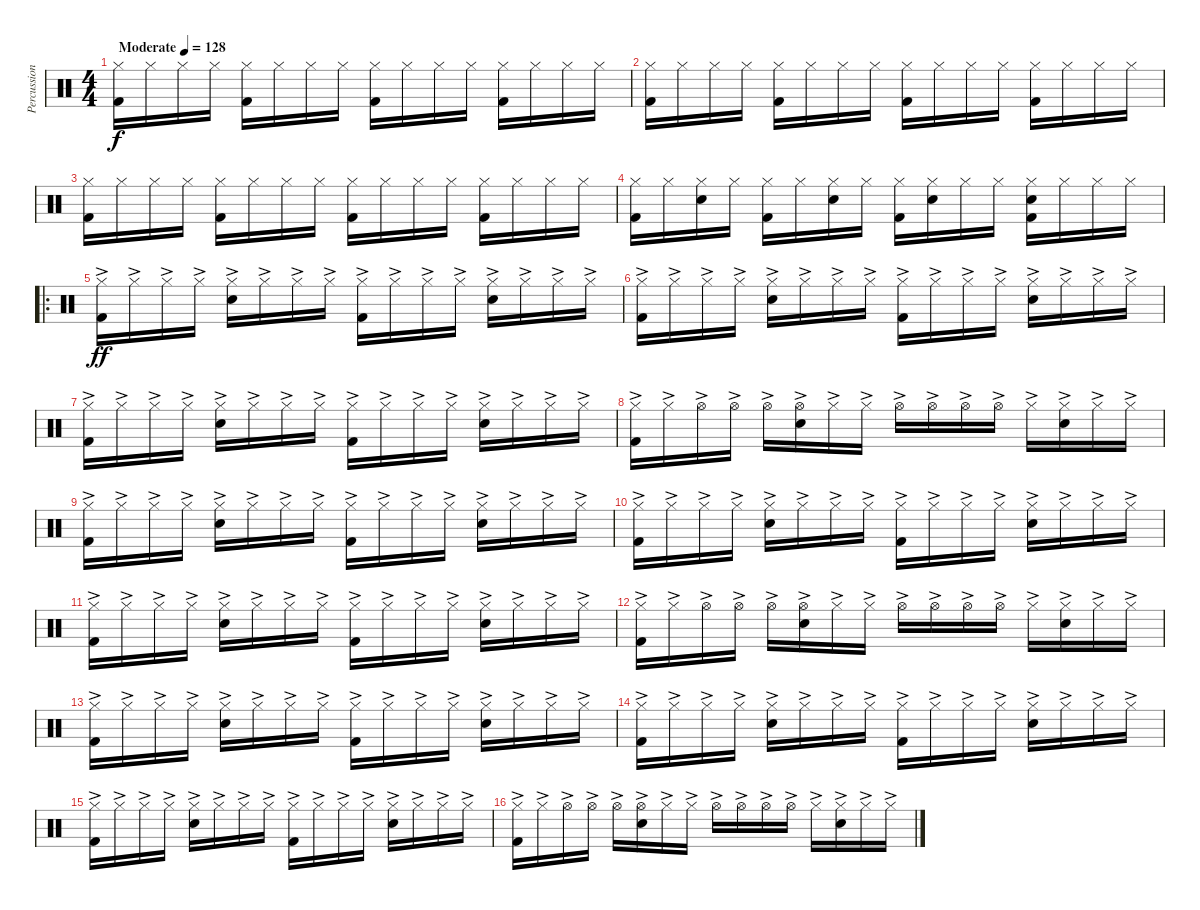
\track ("Percussion" "Percussion") {instrument percussion}
\staff {score}
\articulation defaults
\ts (4 4)
\tempo (128 "Moderate")
\clef neutral
\ks c
("Hi-Hat (closed)" "Kick (hit) 2").16{dy f} "Hi-Hat (closed)".16 "Hi-Hat (closed)".16 "Hi-Hat (closed)".16 ("Hi-Hat (closed)" "Kick (hit) 2").16 "Hi-Hat (closed)".16 "Hi-Hat (closed)".16 "Hi-Hat (closed)".16 ("Hi-Hat (closed)" "Kick (hit) 2").16 "Hi-Hat (closed)".16 "Hi-Hat (closed)".16 "Hi-Hat (closed)".16 ("Hi-Hat (closed)" "Kick (hit) 2").16 "Hi-Hat (closed)".16 "Hi-Hat (closed)".16 "Hi-Hat (closed)".16 |
("Hi-Hat (closed)" "Kick (hit) 2").16 "Hi-Hat (closed)".16 "Hi-Hat (closed)".16 "Hi-Hat (closed)".16 ("Hi-Hat (closed)" "Kick (hit) 2").16 "Hi-Hat (closed)".16 "Hi-Hat (closed)".16 "Hi-Hat (closed)".16 ("Hi-Hat (closed)" "Kick (hit) 2").16 "Hi-Hat (closed)".16 "Hi-Hat (closed)".16 "Hi-Hat (closed)".16 ("Hi-Hat (closed)" "Kick (hit) 2").16 "Hi-Hat (closed)".16 "Hi-Hat (closed)".16 "Hi-Hat (closed)".16 |
("Hi-Hat (closed)" "Kick (hit) 2").16 "Hi-Hat (closed)".16 "Hi-Hat (closed)".16 "Hi-Hat (closed)".16 ("Hi-Hat (closed)" "Kick (hit) 2").16 "Hi-Hat (closed)".16 "Hi-Hat (closed)".16 "Hi-Hat (closed)".16 ("Hi-Hat (closed)" "Kick (hit) 2").16 "Hi-Hat (closed)".16 "Hi-Hat (closed)".16 "Hi-Hat (closed)".16 ("Hi-Hat (closed)" "Kick (hit) 2").16 "Hi-Hat (closed)".16 "Hi-Hat (closed)".16 "Hi-Hat (closed)".16 |
("Hi-Hat (closed)" "Kick (hit) 2").16 "Hi-Hat (closed)".16 ("Hi-Hat (closed)" "Snare (hit) 2").16 "Hi-Hat (closed)".16 ("Hi-Hat (closed)" "Kick (hit) 2").16 "Hi-Hat (closed)".16 ("Hi-Hat (closed)" "Snare (hit) 2").16 "Hi-Hat (closed)".16 ("Hi-Hat (closed)" "Kick (hit) 2").16 ("Hi-Hat (closed)" "Snare (hit) 2").16 "Hi-Hat (closed)".16 "Hi-Hat (closed)".16 ("Hi-Hat (closed)" "Snare (hit) 2" "Kick (hit) 2").16 "Hi-Hat (closed)".16 "Hi-Hat (closed)".16 "Hi-Hat (closed)".16 |
\ro
("Hi-Hat (closed)"{ac} "Kick (hit) 2"{ac}).16{dy ff} "Hi-Hat (closed)"{ac}.16 "Hi-Hat (closed)"{ac}.16 "Hi-Hat (closed)"{ac}.16 ("Hi-Hat (closed)"{ac} "Snare (hit) 2"{ac}).16 "Hi-Hat (closed)"{ac}.16 "Hi-Hat (closed)"{ac}.16 "Hi-Hat (closed)"{ac}.16 ("Hi-Hat (closed)"{ac} "Kick (hit) 2"{ac}).16 "Hi-Hat (closed)"{ac}.16 "Hi-Hat (closed)"{ac}.16 "Hi-Hat (closed)"{ac}.16 ("Hi-Hat (closed)"{ac} "Snare (hit) 2"{ac}).16 "Hi-Hat (closed)"{ac}.16 "Hi-Hat (closed)"{ac}.16 "Hi-Hat (closed)"{ac}.16 |
("Hi-Hat (closed)"{ac} "Kick (hit) 2"{ac}).16 "Hi-Hat (closed)"{ac}.16 "Hi-Hat (closed)"{ac}.16 "Hi-Hat (closed)"{ac}.16 ("Hi-Hat (closed)"{ac} "Snare (hit) 2"{ac}).16 "Hi-Hat (closed)"{ac}.16 "Hi-Hat (closed)"{ac}.16 "Hi-Hat (closed)"{ac}.16 ("Hi-Hat (closed)"{ac} "Kick (hit) 2"{ac}).16 "Hi-Hat (closed)"{ac}.16 "Hi-Hat (closed)"{ac}.16 "Hi-Hat (closed)"{ac}.16 ("Hi-Hat (closed)"{ac} "Snare (hit) 2"{ac}).16 "Hi-Hat (closed)"{ac}.16 "Hi-Hat (closed)"{ac}.16 "Hi-Hat (closed)"{ac}.16 |
("Hi-Hat (closed)"{ac} "Kick (hit) 2"{ac}).16 "Hi-Hat (closed)"{ac}.16 "Hi-Hat (closed)"{ac}.16 "Hi-Hat (closed)"{ac}.16 ("Hi-Hat (closed)"{ac} "Snare (hit) 2"{ac}).16 "Hi-Hat (closed)"{ac}.16 "Hi-Hat (closed)"{ac}.16 "Hi-Hat (closed)"{ac}.16 ("Hi-Hat (closed)"{ac} "Kick (hit) 2"{ac}).16 "Hi-Hat (closed)"{ac}.16 "Hi-Hat (closed)"{ac}.16 "Hi-Hat (closed)"{ac}.16 ("Hi-Hat (closed)"{ac} "Snare (hit) 2"{ac}).16 "Hi-Hat (closed)"{ac}.16 "Hi-Hat (closed)"{ac}.16 "Hi-Hat (closed)"{ac}.16 |
("Hi-Hat (closed)"{ac} "Kick (hit) 2"{ac}).16 "Hi-Hat (closed)"{ac}.16 "Hi-Hat (open)"{ac}.16 "Hi-Hat (open)"{ac}.16 "Hi-Hat (open)"{ac}.16 ("Hi-Hat (open)"{ac} "Snare (hit) 2"{ac}).16 "Hi-Hat (closed)"{ac}.16 "Hi-Hat (closed)"{ac}.16 "Hi-Hat (open)"{ac}.16 "Hi-Hat (open)"{ac}.16 "Hi-Hat (open)"{ac}.16 "Hi-Hat (open)"{ac}.16 "Hi-Hat (closed)"{ac}.16 ("Hi-Hat (closed)"{ac} "Snare (hit) 2"{ac}).16 "Hi-Hat (closed)"{ac}.16 "Hi-Hat (closed)"{ac}.16 |
("Hi-Hat (closed)"{ac} "Kick (hit) 2"{ac}).16 "Hi-Hat (closed)"{ac}.16 "Hi-Hat (closed)"{ac}.16 "Hi-Hat (closed)"{ac}.16 ("Hi-Hat (closed)"{ac} "Snare (hit) 2"{ac}).16 "Hi-Hat (closed)"{ac}.16 "Hi-Hat (closed)"{ac}.16 "Hi-Hat (closed)"{ac}.16 ("Hi-Hat (closed)"{ac} "Kick (hit) 2"{ac}).16 "Hi-Hat (closed)"{ac}.16 "Hi-Hat (closed)"{ac}.16 "Hi-Hat (closed)"{ac}.16 ("Hi-Hat (closed)"{ac} "Snare (hit) 2"{ac}).16 "Hi-Hat (closed)"{ac}.16 "Hi-Hat (closed)"{ac}.16 "Hi-Hat (closed)"{ac}.16 |
("Hi-Hat (closed)"{ac} "Kick (hit) 2"{ac}).16 "Hi-Hat (closed)"{ac}.16 "Hi-Hat (closed)"{ac}.16 "Hi-Hat (closed)"{ac}.16 ("Hi-Hat (closed)"{ac} "Snare (hit) 2"{ac}).16 "Hi-Hat (closed)"{ac}.16 "Hi-Hat (closed)"{ac}.16 "Hi-Hat (closed)"{ac}.16 ("Hi-Hat (closed)"{ac} "Kick (hit) 2"{ac}).16 "Hi-Hat (closed)"{ac}.16 "Hi-Hat (closed)"{ac}.16 "Hi-Hat (closed)"{ac}.16 ("Hi-Hat (closed)"{ac} "Snare (hit) 2"{ac}).16 "Hi-Hat (closed)"{ac}.16 "Hi-Hat (closed)"{ac}.16 "Hi-Hat (closed)"{ac}.16 |
("Hi-Hat (closed)"{ac} "Kick (hit) 2"{ac}).16 "Hi-Hat (closed)"{ac}.16 "Hi-Hat (closed)"{ac}.16 "Hi-Hat (closed)"{ac}.16 ("Hi-Hat (closed)"{ac} "Snare (hit) 2"{ac}).16 "Hi-Hat (closed)"{ac}.16 "Hi-Hat (closed)"{ac}.16 "Hi-Hat (closed)"{ac}.16 ("Hi-Hat (closed)"{ac} "Kick (hit) 2"{ac}).16 "Hi-Hat (closed)"{ac}.16 "Hi-Hat (closed)"{ac}.16 "Hi-Hat (closed)"{ac}.16 ("Hi-Hat (closed)"{ac} "Snare (hit) 2"{ac}).16 "Hi-Hat (closed)"{ac}.16 "Hi-Hat (closed)"{ac}.16 "Hi-Hat (closed)"{ac}.16 |
("Hi-Hat (closed)"{ac} "Kick (hit) 2"{ac}).16 "Hi-Hat (closed)"{ac}.16 "Hi-Hat (open)"{ac}.16 "Hi-Hat (open)"{ac}.16 "Hi-Hat (open)"{ac}.16 ("Hi-Hat (open)"{ac} "Snare (hit) 2"{ac}).16 "Hi-Hat (closed)"{ac}.16 "Hi-Hat (closed)"{ac}.16 "Hi-Hat (open)"{ac}.16 "Hi-Hat (open)"{ac}.16 "Hi-Hat (open)"{ac}.16 "Hi-Hat (open)"{ac}.16 "Hi-Hat (closed)"{ac}.16 ("Hi-Hat (closed)"{ac} "Snare (hit) 2"{ac}).16 "Hi-Hat (closed)"{ac}.16 "Hi-Hat (closed)"{ac}.16 |
("Hi-Hat (closed)"{ac} "Kick (hit) 2"{ac}).16 "Hi-Hat (closed)"{ac}.16 "Hi-Hat (closed)"{ac}.16 "Hi-Hat (closed)"{ac}.16 ("Hi-Hat (closed)"{ac} "Snare (hit) 2"{ac}).16 "Hi-Hat (closed)"{ac}.16 "Hi-Hat (closed)"{ac}.16 "Hi-Hat (closed)"{ac}.16 ("Hi-Hat (closed)"{ac} "Kick (hit) 2"{ac}).16 "Hi-Hat (closed)"{ac}.16 "Hi-Hat (closed)"{ac}.16 "Hi-Hat (closed)"{ac}.16 ("Hi-Hat (closed)"{ac} "Snare (hit) 2"{ac}).16 "Hi-Hat (closed)"{ac}.16 "Hi-Hat (closed)"{ac}.16 "Hi-Hat (closed)"{ac}.16 |
("Hi-Hat (closed)"{ac} "Kick (hit) 2"{ac}).16 "Hi-Hat (closed)"{ac}.16 "Hi-Hat (closed)"{ac}.16 "Hi-Hat (closed)"{ac}.16 ("Hi-Hat (closed)"{ac} "Snare (hit) 2"{ac}).16 "Hi-Hat (closed)"{ac}.16 "Hi-Hat (closed)"{ac}.16 "Hi-Hat (closed)"{ac}.16 ("Hi-Hat (closed)"{ac} "Kick (hit) 2"{ac}).16 "Hi-Hat (closed)"{ac}.16 "Hi-Hat (closed)"{ac}.16 "Hi-Hat (closed)"{ac}.16 ("Hi-Hat (closed)"{ac} "Snare (hit) 2"{ac}).16 "Hi-Hat (closed)"{ac}.16 "Hi-Hat (closed)"{ac}.16 "Hi-Hat (closed)"{ac}.16 |
("Hi-Hat (closed)"{ac} "Kick (hit) 2"{ac}).16 "Hi-Hat (closed)"{ac}.16 "Hi-Hat (closed)"{ac}.16 "Hi-Hat (closed)"{ac}.16 ("Hi-Hat (closed)"{ac} "Snare (hit) 2"{ac}).16 "Hi-Hat (closed)"{ac}.16 "Hi-Hat (closed)"{ac}.16 "Hi-Hat (closed)"{ac}.16 ("Hi-Hat (closed)"{ac} "Kick (hit) 2"{ac}).16 "Hi-Hat (closed)"{ac}.16 "Hi-Hat (closed)"{ac}.16 "Hi-Hat (closed)"{ac}.16 ("Hi-Hat (closed)"{ac} "Snare (hit) 2"{ac}).16 "Hi-Hat (closed)"{ac}.16 "Hi-Hat (closed)"{ac}.16 "Hi-Hat (closed)"{ac}.16 |
("Hi-Hat (closed)"{ac} "Kick (hit) 2"{ac}).16 "Hi-Hat (closed)"{ac}.16 "Hi-Hat (open)"{ac}.16 "Hi-Hat (open)"{ac}.16 "Hi-Hat (open)"{ac}.16 ("Hi-Hat (open)"{ac} "Snare (hit) 2"{ac}).16 "Hi-Hat (closed)"{ac}.16 "Hi-Hat (closed)"{ac}.16 "Hi-Hat (open)"{ac}.16 "Hi-Hat (open)"{ac}.16 "Hi-Hat (open)"{ac}.16 "Hi-Hat (open)"{ac}.16 "Hi-Hat (closed)"{ac}.16 ("Hi-Hat (closed)"{ac} "Snare (hit) 2"{ac}).16 "Hi-Hat (closed)"{ac}.16 "Hi-Hat (closed)"{ac}.16
